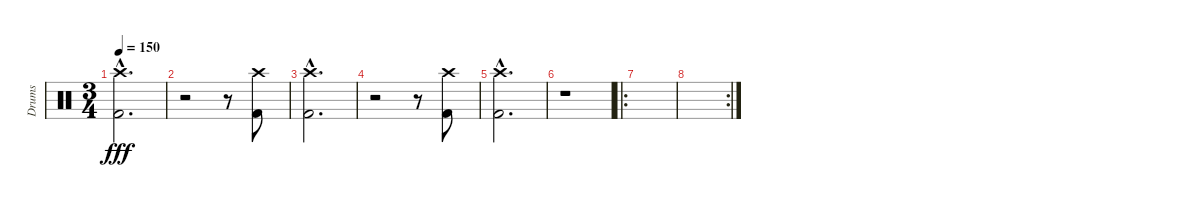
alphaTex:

\track ("Drums" "Drums") {instrument percussion}
\staff {score}
\articulation defaults
\ts (3 4)
\tempo 150
\clef neutral
\ks c
("Kick (hit) 2"{hac} "Crash high (hit)"{hac}).2{d dy fff} |
r.2 r.8 ("Kick (hit) 2" "Crash high (hit)").8 |
("Kick (hit) 2"{hac} "Crash high (hit)"{hac}).2{d} |
r.2 r.8 ("Kick (hit) 2" "Crash high (hit)").8 |
("Kick (hit) 2"{hac} "Crash high (hit)"{hac}).2{d} |
r.1 |
\ro
|
\rc 2
